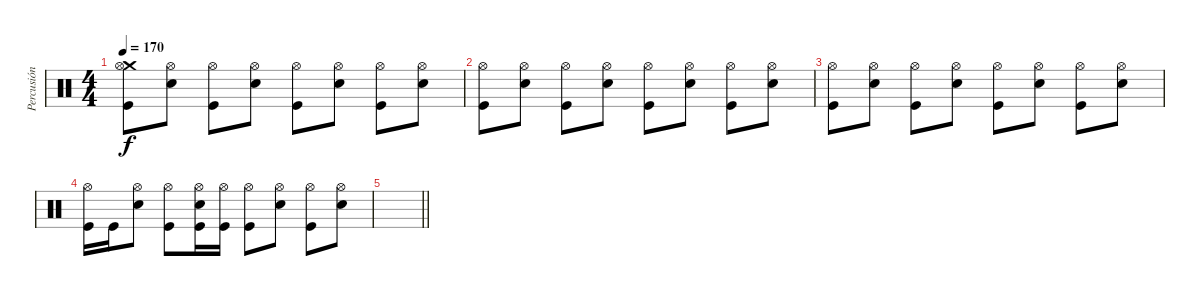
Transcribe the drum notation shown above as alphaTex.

\track ("Percusión" "Percusión") {instrument percussion}
\staff {score}
\articulation defaults
\ts (4 4)
\tempo 170
\clef neutral
\ks c
("Crash medium (hit)" "Hi-Hat (open)" "Kick (hit)").8{dy f} ("Hi-Hat (open)" "Electric Snare (hit)").8 ("Hi-Hat (open)" "Kick (hit)").8 ("Hi-Hat (open)" "Electric Snare (hit)").8 ("Hi-Hat (open)" "Kick (hit)").8 ("Hi-Hat (open)" "Electric Snare (hit)").8 ("Hi-Hat (open)" "Kick (hit)").8 ("Hi-Hat (open)" "Electric Snare (hit)").8 |
("Hi-Hat (open)" "Kick (hit)").8 ("Hi-Hat (open)" "Electric Snare (hit)").8 ("Hi-Hat (open)" "Kick (hit)").8 ("Hi-Hat (open)" "Electric Snare (hit)").8 ("Hi-Hat (open)" "Kick (hit)").8 ("Hi-Hat (open)" "Electric Snare (hit)").8 ("Hi-Hat (open)" "Kick (hit)").8 ("Hi-Hat (open)" "Electric Snare (hit)").8 |
("Hi-Hat (open)" "Kick (hit)").8 ("Hi-Hat (open)" "Electric Snare (hit)").8 ("Hi-Hat (open)" "Kick (hit)").8 ("Hi-Hat (open)" "Electric Snare (hit)").8 ("Hi-Hat (open)" "Kick (hit)").8 ("Hi-Hat (open)" "Electric Snare (hit)").8 ("Hi-Hat (open)" "Kick (hit)").8 ("Hi-Hat (open)" "Electric Snare (hit)").8 |
("Hi-Hat (open)" "Kick (hit)").16 "Kick (hit)".16 ("Hi-Hat (open)" "Electric Snare (hit)").8 ("Hi-Hat (open)" "Kick (hit)").8 ("Hi-Hat (open)" "Electric Snare (hit)" "Kick (hit)").16 ("Hi-Hat (open)" "Kick (hit)").16 ("Hi-Hat (open)" "Kick (hit)").8 ("Hi-Hat (open)" "Electric Snare (hit)").8 ("Hi-Hat (open)" "Kick (hit)").8 ("Hi-Hat (open)" "Electric Snare (hit)").8 |
\barLineRight lightlight
